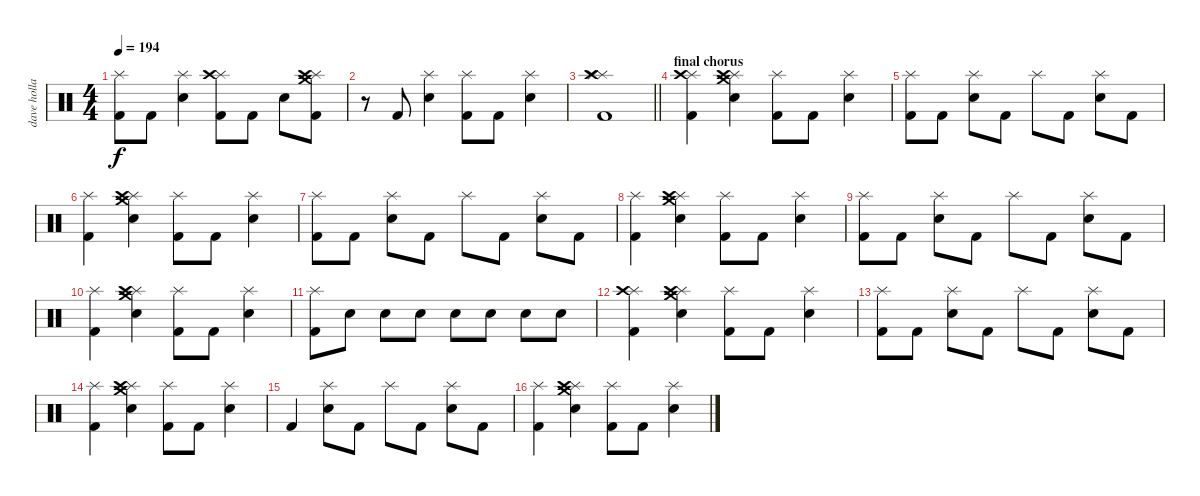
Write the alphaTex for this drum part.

\track ("dave holland" "dave holla") {instrument percussion}
\staff {score}
\articulation defaults
\ts (4 4)
\tempo 194
\clef neutral
\ks c
("Splash (hit)" "Kick (hit) 2").8{dy f} "Kick (hit) 2".8 ("Splash (hit)" "Electric Snare (hit)").4 ("Splash (hit)" "Crash high (hit)" "Kick (hit) 2").8 "Kick (hit) 2".8 "Electric Snare (hit)".8 ("Crash medium (hit)" "Splash (hit)" "Crash high (hit)" "Kick (hit) 2").8 |
r.8 "Kick (hit) 2".8 ("Splash (hit)" "Electric Snare (hit)").4 ("Splash (hit)" "Kick (hit) 2").8 "Kick (hit) 2".8 ("Splash (hit)" "Electric Snare (hit)").4 |
\barLineRight lightlight
("Splash (hit)" "Splash (hit)" "Crash high (hit)" "Kick (hit) 2").1 |
\section ("" "final chorus")
("Splash (hit)" "Crash high (hit)" "Kick (hit) 2").4 ("Crash medium (hit)" "Splash (hit)" "Crash high (hit)" "Electric Snare (hit)").4 ("Splash (hit)" "Kick (hit) 2").8 "Kick (hit) 2".8 ("Splash (hit)" "Electric Snare (hit)").4 |
("Splash (hit)" "Kick (hit) 2").8 "Kick (hit) 2".8 ("Splash (hit)" "Electric Snare (hit)").8 "Kick (hit) 2".8 "Splash (hit)".8 "Kick (hit) 2".8 ("Splash (hit)" "Electric Snare (hit)").8 "Kick (hit) 2".8 |
("Splash (hit)" "Kick (hit) 2").4 ("Crash medium (hit)" "Splash (hit)" "Crash high (hit)" "Electric Snare (hit)").4 ("Splash (hit)" "Kick (hit) 2").8 "Kick (hit) 2".8 ("Splash (hit)" "Electric Snare (hit)").4 |
("Splash (hit)" "Kick (hit) 2").8 "Kick (hit) 2".8 ("Splash (hit)" "Electric Snare (hit)").8 "Kick (hit) 2".8 "Splash (hit)".8 "Kick (hit) 2".8 ("Splash (hit)" "Electric Snare (hit)").8 "Kick (hit) 2".8 |
("Splash (hit)" "Kick (hit) 2").4 ("Crash medium (hit)" "Splash (hit)" "Crash high (hit)" "Electric Snare (hit)").4 ("Splash (hit)" "Kick (hit) 2").8 "Kick (hit) 2".8 ("Splash (hit)" "Electric Snare (hit)").4 |
("Splash (hit)" "Kick (hit) 2").8 "Kick (hit) 2".8 ("Splash (hit)" "Electric Snare (hit)").8 "Kick (hit) 2".8 "Splash (hit)".8 "Kick (hit) 2".8 ("Splash (hit)" "Electric Snare (hit)").8 "Kick (hit) 2".8 |
("Splash (hit)" "Kick (hit) 2").4 ("Crash medium (hit)" "Splash (hit)" "Crash high (hit)" "Electric Snare (hit)").4 ("Splash (hit)" "Kick (hit) 2").8 "Kick (hit) 2".8 ("Splash (hit)" "Electric Snare (hit)").4 |
("Splash (hit)" "Kick (hit) 2").8 "Electric Snare (hit)".8 "Electric Snare (hit)".8 "Electric Snare (hit)".8 "Electric Snare (hit)".8 "Electric Snare (hit)".8 "Electric Snare (hit)".8 "Electric Snare (hit)".8 |
("Splash (hit)" "Crash high (hit)" "Kick (hit) 2").4 ("Crash medium (hit)" "Splash (hit)" "Crash high (hit)" "Electric Snare (hit)").4 ("Splash (hit)" "Kick (hit) 2").8 "Kick (hit) 2".8 ("Splash (hit)" "Electric Snare (hit)").4 |
("Splash (hit)" "Kick (hit) 2").8 "Kick (hit) 2".8 ("Splash (hit)" "Electric Snare (hit)").8 "Kick (hit) 2".8 "Splash (hit)".8 "Kick (hit) 2".8 ("Splash (hit)" "Electric Snare (hit)").8 "Kick (hit) 2".8 |
("Splash (hit)" "Kick (hit) 2").4 ("Crash medium (hit)" "Splash (hit)" "Crash high (hit)" "Electric Snare (hit)").4 ("Splash (hit)" "Kick (hit) 2").8 "Kick (hit) 2".8 ("Splash (hit)" "Electric Snare (hit)").4 |
"Kick (hit) 2".4 ("Splash (hit)" "Electric Snare (hit)").8 "Kick (hit) 2".8 "Splash (hit)".8 "Kick (hit) 2".8 ("Splash (hit)" "Electric Snare (hit)").8 "Kick (hit) 2".8 |
("Splash (hit)" "Kick (hit) 2").4 ("Crash medium (hit)" "Splash (hit)" "Crash high (hit)" "Electric Snare (hit)").4 ("Splash (hit)" "Kick (hit) 2").8 "Kick (hit) 2".8 ("Splash (hit)" "Electric Snare (hit)").4
